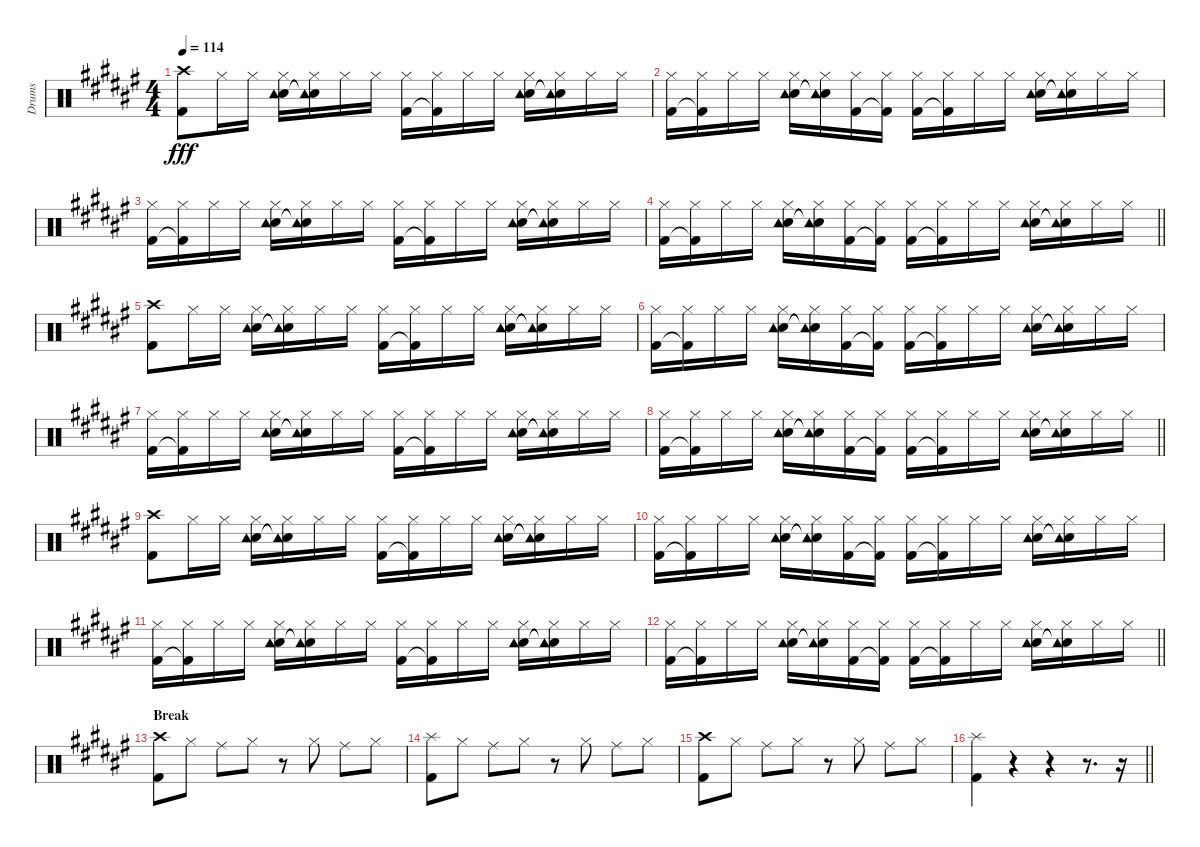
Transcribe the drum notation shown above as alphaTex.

\track ("Drums" "Drums") {instrument percussion}
\staff {score}
\articulation defaults
\ts (4 4)
\tempo 114
\clef neutral
\ks f#
("Crash high (hit)" "Kick (hit) 2").8{dy fff} "Hi-Hat (closed)".16 "Hi-Hat (closed)".16 ("Hi-Hat (closed)" "Electric Snare (hit)" "Tambourine (hit)").16 ("Hi-Hat (closed)" "Electric Snare (hit)"{t} "Tambourine (hit)"{t}).16 "Hi-Hat (closed)".16 "Hi-Hat (closed)".16 ("Hi-Hat (closed)" "Kick (hit) 2").16 ("Hi-Hat (closed)" "Kick (hit) 2"{t}).16 "Hi-Hat (closed)".16 "Hi-Hat (closed)".16 ("Hi-Hat (closed)" "Electric Snare (hit)" "Tambourine (hit)").16 ("Hi-Hat (closed)" "Electric Snare (hit)"{t} "Tambourine (hit)"{t}).16 "Hi-Hat (closed)".16 "Hi-Hat (closed)".16 |
("Hi-Hat (closed)" "Kick (hit) 2").16 ("Hi-Hat (closed)" "Kick (hit) 2"{t}).16 "Hi-Hat (closed)".16 "Hi-Hat (closed)".16 ("Hi-Hat (closed)" "Electric Snare (hit)" "Tambourine (hit)").16 ("Hi-Hat (closed)" "Electric Snare (hit)"{t} "Tambourine (hit)"{t}).16 ("Hi-Hat (closed)" "Kick (hit) 2").16 ("Hi-Hat (closed)" "Kick (hit) 2"{t}).16 ("Hi-Hat (closed)" "Kick (hit) 2").16 ("Hi-Hat (closed)" "Kick (hit) 2"{t}).16 "Hi-Hat (closed)".16 "Hi-Hat (closed)".16 ("Hi-Hat (closed)" "Electric Snare (hit)" "Tambourine (hit)").16 ("Hi-Hat (closed)" "Electric Snare (hit)"{t} "Tambourine (hit)"{t}).16 "Hi-Hat (closed)".16 "Hi-Hat (closed)".16 |
("Hi-Hat (closed)" "Kick (hit) 2").16 ("Hi-Hat (closed)" "Kick (hit) 2"{t}).16 "Hi-Hat (closed)".16 "Hi-Hat (closed)".16 ("Hi-Hat (closed)" "Electric Snare (hit)" "Tambourine (hit)").16 ("Hi-Hat (closed)" "Electric Snare (hit)"{t} "Tambourine (hit)"{t}).16 "Hi-Hat (closed)".16 "Hi-Hat (closed)".16 ("Hi-Hat (closed)" "Kick (hit) 2").16 ("Hi-Hat (closed)" "Kick (hit) 2"{t}).16 "Hi-Hat (closed)".16 "Hi-Hat (closed)".16 ("Hi-Hat (closed)" "Electric Snare (hit)" "Tambourine (hit)").16 ("Hi-Hat (closed)" "Electric Snare (hit)"{t} "Tambourine (hit)"{t}).16 "Hi-Hat (closed)".16 "Hi-Hat (closed)".16 |
\barLineRight lightlight
("Hi-Hat (closed)" "Kick (hit) 2").16 ("Hi-Hat (closed)" "Kick (hit) 2"{t}).16 "Hi-Hat (closed)".16 "Hi-Hat (closed)".16 ("Hi-Hat (closed)" "Electric Snare (hit)" "Tambourine (hit)").16 ("Hi-Hat (closed)" "Electric Snare (hit)"{t} "Tambourine (hit)"{t}).16 ("Hi-Hat (closed)" "Kick (hit) 2").16 ("Hi-Hat (closed)" "Kick (hit) 2"{t}).16 ("Hi-Hat (closed)" "Kick (hit) 2").16 ("Hi-Hat (closed)" "Kick (hit) 2"{t}).16 "Hi-Hat (closed)".16 "Hi-Hat (closed)".16 ("Hi-Hat (closed)" "Electric Snare (hit)" "Tambourine (hit)").16 ("Hi-Hat (closed)" "Electric Snare (hit)"{t} "Tambourine (hit)"{t}).16 "Hi-Hat (closed)".16 "Hi-Hat (closed)".16 |
("Crash high (hit)" "Kick (hit) 2").8 "Hi-Hat (closed)".16 "Hi-Hat (closed)".16 ("Hi-Hat (closed)" "Electric Snare (hit)" "Tambourine (hit)").16 ("Hi-Hat (closed)" "Electric Snare (hit)"{t} "Tambourine (hit)"{t}).16 "Hi-Hat (closed)".16 "Hi-Hat (closed)".16 ("Hi-Hat (closed)" "Kick (hit) 2").16 ("Hi-Hat (closed)" "Kick (hit) 2"{t}).16 "Hi-Hat (closed)".16 "Hi-Hat (closed)".16 ("Hi-Hat (closed)" "Electric Snare (hit)" "Tambourine (hit)").16 ("Hi-Hat (closed)" "Electric Snare (hit)"{t} "Tambourine (hit)"{t}).16 "Hi-Hat (closed)".16 "Hi-Hat (closed)".16 |
("Hi-Hat (closed)" "Kick (hit) 2").16 ("Hi-Hat (closed)" "Kick (hit) 2"{t}).16 "Hi-Hat (closed)".16 "Hi-Hat (closed)".16 ("Hi-Hat (closed)" "Electric Snare (hit)" "Tambourine (hit)").16 ("Hi-Hat (closed)" "Electric Snare (hit)"{t} "Tambourine (hit)"{t}).16 ("Hi-Hat (closed)" "Kick (hit) 2").16 ("Hi-Hat (closed)" "Kick (hit) 2"{t}).16 ("Hi-Hat (closed)" "Kick (hit) 2").16 ("Hi-Hat (closed)" "Kick (hit) 2"{t}).16 "Hi-Hat (closed)".16 "Hi-Hat (closed)".16 ("Hi-Hat (closed)" "Electric Snare (hit)" "Tambourine (hit)").16 ("Hi-Hat (closed)" "Electric Snare (hit)"{t} "Tambourine (hit)"{t}).16 "Hi-Hat (closed)".16 "Hi-Hat (closed)".16 |
("Hi-Hat (closed)" "Kick (hit) 2").16 ("Hi-Hat (closed)" "Kick (hit) 2"{t}).16 "Hi-Hat (closed)".16 "Hi-Hat (closed)".16 ("Hi-Hat (closed)" "Electric Snare (hit)" "Tambourine (hit)").16 ("Hi-Hat (closed)" "Electric Snare (hit)"{t} "Tambourine (hit)"{t}).16 "Hi-Hat (closed)".16 "Hi-Hat (closed)".16 ("Hi-Hat (closed)" "Kick (hit) 2").16 ("Hi-Hat (closed)" "Kick (hit) 2"{t}).16 "Hi-Hat (closed)".16 "Hi-Hat (closed)".16 ("Hi-Hat (closed)" "Electric Snare (hit)" "Tambourine (hit)").16 ("Hi-Hat (closed)" "Electric Snare (hit)"{t} "Tambourine (hit)"{t}).16 "Hi-Hat (closed)".16 "Hi-Hat (closed)".16 |
\barLineRight lightlight
("Hi-Hat (closed)" "Kick (hit) 2").16 ("Hi-Hat (closed)" "Kick (hit) 2"{t}).16 "Hi-Hat (closed)".16 "Hi-Hat (closed)".16 ("Hi-Hat (closed)" "Electric Snare (hit)" "Tambourine (hit)").16 ("Hi-Hat (closed)" "Electric Snare (hit)"{t} "Tambourine (hit)"{t}).16 ("Hi-Hat (closed)" "Kick (hit) 2").16 ("Hi-Hat (closed)" "Kick (hit) 2"{t}).16 ("Hi-Hat (closed)" "Kick (hit) 2").16 ("Hi-Hat (closed)" "Kick (hit) 2"{t}).16 "Hi-Hat (closed)".16 "Hi-Hat (closed)".16 ("Hi-Hat (closed)" "Electric Snare (hit)" "Tambourine (hit)").16 ("Hi-Hat (closed)" "Electric Snare (hit)"{t} "Tambourine (hit)"{t}).16 "Hi-Hat (closed)".16 "Hi-Hat (closed)".16 |
("Crash high (hit)" "Kick (hit) 2").8 "Hi-Hat (closed)".16 "Hi-Hat (closed)".16 ("Hi-Hat (closed)" "Electric Snare (hit)" "Tambourine (hit)").16 ("Hi-Hat (closed)" "Electric Snare (hit)"{t} "Tambourine (hit)"{t}).16 "Hi-Hat (closed)".16 "Hi-Hat (closed)".16 ("Hi-Hat (closed)" "Kick (hit) 2").16 ("Hi-Hat (closed)" "Kick (hit) 2"{t}).16 "Hi-Hat (closed)".16 "Hi-Hat (closed)".16 ("Hi-Hat (closed)" "Electric Snare (hit)" "Tambourine (hit)").16 ("Hi-Hat (closed)" "Electric Snare (hit)"{t} "Tambourine (hit)"{t}).16 "Hi-Hat (closed)".16 "Hi-Hat (closed)".16 |
("Hi-Hat (closed)" "Kick (hit) 2").16 ("Hi-Hat (closed)" "Kick (hit) 2"{t}).16 "Hi-Hat (closed)".16 "Hi-Hat (closed)".16 ("Hi-Hat (closed)" "Electric Snare (hit)" "Tambourine (hit)").16 ("Hi-Hat (closed)" "Electric Snare (hit)"{t} "Tambourine (hit)"{t}).16 ("Hi-Hat (closed)" "Kick (hit) 2").16 ("Hi-Hat (closed)" "Kick (hit) 2"{t}).16 ("Hi-Hat (closed)" "Kick (hit) 2").16 ("Hi-Hat (closed)" "Kick (hit) 2"{t}).16 "Hi-Hat (closed)".16 "Hi-Hat (closed)".16 ("Hi-Hat (closed)" "Electric Snare (hit)" "Tambourine (hit)").16 ("Hi-Hat (closed)" "Electric Snare (hit)"{t} "Tambourine (hit)"{t}).16 "Hi-Hat (closed)".16 "Hi-Hat (closed)".16 |
("Hi-Hat (closed)" "Kick (hit) 2").16 ("Hi-Hat (closed)" "Kick (hit) 2"{t}).16 "Hi-Hat (closed)".16 "Hi-Hat (closed)".16 ("Hi-Hat (closed)" "Electric Snare (hit)" "Tambourine (hit)").16 ("Hi-Hat (closed)" "Electric Snare (hit)"{t} "Tambourine (hit)"{t}).16 "Hi-Hat (closed)".16 "Hi-Hat (closed)".16 ("Hi-Hat (closed)" "Kick (hit) 2").16 ("Hi-Hat (closed)" "Kick (hit) 2"{t}).16 "Hi-Hat (closed)".16 "Hi-Hat (closed)".16 ("Hi-Hat (closed)" "Electric Snare (hit)" "Tambourine (hit)").16 ("Hi-Hat (closed)" "Electric Snare (hit)"{t} "Tambourine (hit)"{t}).16 "Hi-Hat (closed)".16 "Hi-Hat (closed)".16 |
\barLineRight lightlight
("Hi-Hat (closed)" "Kick (hit) 2").16 ("Hi-Hat (closed)" "Kick (hit) 2"{t}).16 "Hi-Hat (closed)".16 "Hi-Hat (closed)".16 ("Hi-Hat (closed)" "Electric Snare (hit)" "Tambourine (hit)").16 ("Hi-Hat (closed)" "Electric Snare (hit)"{t} "Tambourine (hit)"{t}).16 ("Hi-Hat (closed)" "Kick (hit) 2").16 ("Hi-Hat (closed)" "Kick (hit) 2"{t}).16 ("Hi-Hat (closed)" "Kick (hit) 2").16 ("Hi-Hat (closed)" "Kick (hit) 2"{t}).16 "Hi-Hat (closed)".16 "Hi-Hat (closed)".16 ("Hi-Hat (closed)" "Electric Snare (hit)" "Tambourine (hit)").16 ("Hi-Hat (closed)" "Electric Snare (hit)"{t} "Tambourine (hit)"{t}).16 "Hi-Hat (closed)".16 "Hi-Hat (closed)".16 |
\section ("" "Break")
("Crash high (hit)" "Kick (hit) 2").8 "Hi-Hat (closed)".8 "Ride (middle)".8 "Hi-Hat (closed)".8 r.8 "Hi-Hat (closed)".8 "Ride (middle)".8 "Hi-Hat (closed)".8 |
("Splash (hit)" "Kick (hit) 2").8 "Hi-Hat (closed)".8 "Ride (middle)".8 "Hi-Hat (closed)".8 r.8 "Hi-Hat (closed)".8 "Ride (middle)".8 "Hi-Hat (closed)".8 |
("Crash high (hit)" "Kick (hit) 2").8 "Hi-Hat (closed)".8 "Ride (middle)".8 "Hi-Hat (closed)".8 r.8 "Hi-Hat (closed)".8 "Ride (middle)".8 "Hi-Hat (closed)".8 |
\barLineRight lightlight
("Splash (hit)" "Kick (hit) 2").4 r.4 r.4 r.8{d} r.16
